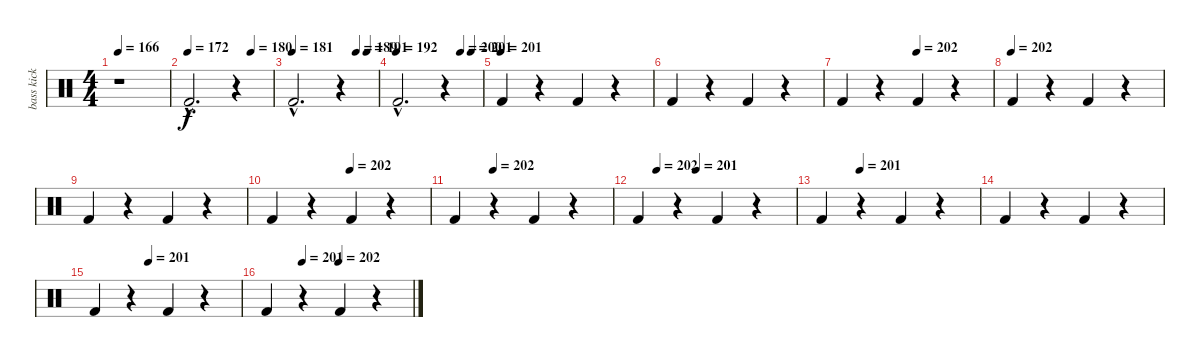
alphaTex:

\track ("bass kick" "bass kick") {instrument percussion}
\staff {score}
\articulation defaults
\ts (4 4)
\tempo 166
\clef neutral
\ks c
r.1{dy f} |
\tempo 172
\tempo (180 0.75)
"Kick (hit) 2"{hac}.2{d} r.4 |
\tempo 181
\tempo (189 0.75)
\tempo (191 0.875)
"Kick (hit) 2"{hac}.2{d} r.4 |
\tempo 192
\tempo (200 0.75)
\tempo (201 0.875)
"Kick (hit) 2"{hac}.2{d} r.4 |
\tempo (201)
"Kick (hit) 2".4 r.4 "Kick (hit) 2".4 r.4 |
"Kick (hit) 2".4 r.4 "Kick (hit) 2".4 r.4 |
\tempo (202 0.5)
"Kick (hit) 2".4 r.4 "Kick (hit) 2".4 r.4 |
\tempo (202)
"Kick (hit) 2".4 r.4 "Kick (hit) 2".4 r.4 |
"Kick (hit) 2".4 r.4 "Kick (hit) 2".4 r.4 |
\tempo (202 0.5)
"Kick (hit) 2".4 r.4 "Kick (hit) 2".4 r.4 |
\tempo (202 0.25)
"Kick (hit) 2".4 r.4 "Kick (hit) 2".4 r.4 |
\tempo (202 0.125)
\tempo (201 0.375)
"Kick (hit) 2".4 r.4 "Kick (hit) 2".4 r.4 |
\tempo (201 0.25)
"Kick (hit) 2".4 r.4 "Kick (hit) 2".4 r.4 |
"Kick (hit) 2".4 r.4 "Kick (hit) 2".4 r.4 |
\tempo (201 0.375)
"Kick (hit) 2".4 r.4 "Kick (hit) 2".4 r.4 |
\tempo (201 0.25)
\tempo (202 0.5)
"Kick (hit) 2".4 r.4 "Kick (hit) 2".4 r.4
